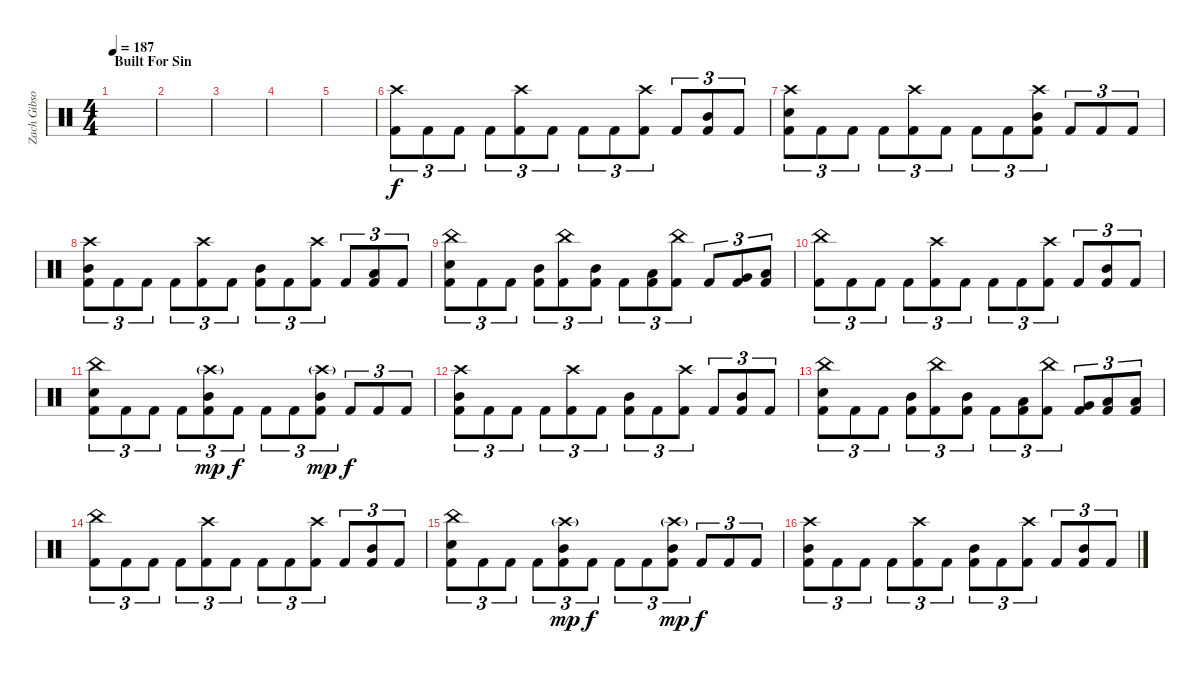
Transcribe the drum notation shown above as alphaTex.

\track ("Zach Gibson (Ex-Drums)" "Zach Gibso") {instrument percussion}
\staff {score}
\articulation defaults
\ts (4 4)
\section ("" "Built For Sin")
\tempo 187
\clef neutral
\ks c
|
|
|
|
|
("Crash high (hit)" "Kick (hit) 2").8{tu (3 2)} "Kick (hit) 2".8{tu (3 2)} "Kick (hit) 2".8{tu (3 2)} "Kick (hit) 2".8{tu (3 2)} ("Crash high (hit)" "Kick (hit) 2").8{tu (3 2)} "Kick (hit) 2".8{tu (3 2)} "Kick (hit) 2".8{tu (3 2)} "Kick (hit) 2".8{tu (3 2)} ("Crash high (hit)" "Kick (hit) 2").8{tu (3 2)} "Kick (hit) 2".8{tu (3 2)} ("Mid Tom (hit)" "Kick (hit) 2").8{tu (3 2)} "Kick (hit) 2".8{tu (3 2)} |
("Snare (hit) 2" "Crash high (hit)" "Kick (hit) 2").8{tu (3 2)} "Kick (hit) 2".8{tu (3 2)} "Kick (hit) 2".8{tu (3 2)} "Kick (hit) 2".8{tu (3 2)} ("Crash high (hit)" "Kick (hit) 2").8{tu (3 2)} "Kick (hit) 2".8{tu (3 2)} "Kick (hit) 2".8{tu (3 2)} "Kick (hit) 2".8{tu (3 2)} ("Mid Tom (hit)" "Crash high (hit)" "Kick (hit) 2").8{tu (3 2)} "Kick (hit) 2".8{tu (3 2)} "Kick (hit) 2".8{tu (3 2)} "Kick (hit) 2".8{tu (3 2)} |
("Mid Tom (hit)" "Crash high (hit)" "Kick (hit) 2").8{tu (3 2)} "Kick (hit) 2".8{tu (3 2)} "Kick (hit) 2".8{tu (3 2)} "Kick (hit) 2".8{tu (3 2)} ("Crash high (hit)" "Kick (hit) 2").8{tu (3 2)} "Kick (hit) 2".8{tu (3 2)} ("Mid Tom (hit)" "Kick (hit) 2").8{tu (3 2)} "Kick (hit) 2".8{tu (3 2)} ("Crash high (hit)" "Kick (hit) 2").8{tu (3 2)} "Kick (hit) 2".8{tu (3 2)} ("Low Tom (hit)" "Kick (hit) 2").8{tu (3 2)} "Kick (hit) 2".8{tu (3 2)} |
("Kick (hit) 2" "China (hit)" "Snare (hit) 2").8{tu (3 2)} "Kick (hit) 2".8{tu (3 2)} "Kick (hit) 2".8{tu (3 2)} ("Mid Tom (hit)" "Kick (hit) 2").8{tu (3 2)} ("China (hit)" "Kick (hit) 2").8{tu (3 2)} ("Mid Tom (hit)" "Kick (hit) 2").8{tu (3 2)} "Kick (hit) 2".8{tu (3 2)} ("Low Tom (hit)" "Kick (hit) 2").8{tu (3 2)} ("China (hit)" "Kick (hit) 2").8{tu (3 2)} "Kick (hit) 2".8{tu (3 2)} ("Very Low Tom (hit)" "Kick (hit) 2").8{tu (3 2)} ("Low Floor Tom (hit)" "Kick (hit) 2").8{tu (3 2)} |
("China (hit)" "Kick (hit) 2").8{tu (3 2)} "Kick (hit) 2".8{tu (3 2)} "Kick (hit) 2".8{tu (3 2)} "Kick (hit) 2".8{tu (3 2)} ("Crash high (hit)" "Kick (hit) 2").8{tu (3 2)} "Kick (hit) 2".8{tu (3 2)} "Kick (hit) 2".8{tu (3 2)} "Kick (hit) 2".8{tu (3 2)} ("Crash high (hit)" "Kick (hit) 2").8{tu (3 2)} "Kick (hit) 2".8{tu (3 2)} ("Mid Tom (hit)" "Kick (hit) 2").8{tu (3 2)} "Kick (hit) 2".8{tu (3 2)} |
("Snare (hit) 2" "China (hit)" "Kick (hit) 2").8{tu (3 2)} "Kick (hit) 2".8{tu (3 2)} "Kick (hit) 2".8{tu (3 2)} "Kick (hit) 2".8{tu (3 2)} ("Mid Tom (hit)" "Crash high (hit)"{g} "Kick (hit) 2").8{tu (3 2) dy mp} "Kick (hit) 2".8{tu (3 2) dy f} "Kick (hit) 2".8{tu (3 2)} "Kick (hit) 2".8{tu (3 2)} ("Mid Tom (hit)" "Crash high (hit)"{g} "Kick (hit) 2").8{tu (3 2) dy mp} "Kick (hit) 2".8{tu (3 2) dy f} "Kick (hit) 2".8{tu (3 2)} "Kick (hit) 2".8{tu (3 2)} |
("Crash high (hit)" "Mid Tom (hit)" "Kick (hit) 2").8{tu (3 2)} "Kick (hit) 2".8{tu (3 2)} "Kick (hit) 2".8{tu (3 2)} "Kick (hit) 2".8{tu (3 2)} ("Crash high (hit)" "Kick (hit) 2").8{tu (3 2)} "Kick (hit) 2".8{tu (3 2)} ("Mid Tom (hit)" "Kick (hit) 2").8{tu (3 2)} "Kick (hit) 2".8{tu (3 2)} ("Crash high (hit)" "Kick (hit) 2").8{tu (3 2)} "Kick (hit) 2".8{tu (3 2)} ("Mid Tom (hit)" "Kick (hit) 2").8{tu (3 2)} "Kick (hit) 2".8{tu (3 2)} |
("Snare (hit) 2" "China (hit)" "Kick (hit) 2").8{tu (3 2)} "Kick (hit) 2".8{tu (3 2)} "Kick (hit) 2".8{tu (3 2)} ("Mid Tom (hit)" "Kick (hit) 2").8{tu (3 2)} ("China (hit)" "Kick (hit) 2").8{tu (3 2)} ("Mid Tom (hit)" "Kick (hit) 2").8{tu (3 2)} "Kick (hit) 2".8{tu (3 2)} ("Low Tom (hit)" "Kick (hit) 2").8{tu (3 2)} ("China (hit)" "Kick (hit) 2").8{tu (3 2)} ("Very Low Tom (hit)" "Kick (hit) 2").8{tu (3 2)} ("Low Floor Tom (hit)" "Kick (hit) 2").8{tu (3 2)} ("Low Floor Tom (hit)" "Kick (hit) 2").8{tu (3 2)} |
("China (hit)" "Kick (hit) 2").8{tu (3 2)} "Kick (hit) 2".8{tu (3 2)} "Kick (hit) 2".8{tu (3 2)} "Kick (hit) 2".8{tu (3 2)} ("Crash high (hit)" "Kick (hit) 2").8{tu (3 2)} "Kick (hit) 2".8{tu (3 2)} "Kick (hit) 2".8{tu (3 2)} "Kick (hit) 2".8{tu (3 2)} ("Crash high (hit)" "Kick (hit) 2").8{tu (3 2)} "Kick (hit) 2".8{tu (3 2)} ("Mid Tom (hit)" "Kick (hit) 2").8{tu (3 2)} "Kick (hit) 2".8{tu (3 2)} |
("Snare (hit) 2" "China (hit)" "Kick (hit) 2").8{tu (3 2)} "Kick (hit) 2".8{tu (3 2)} "Kick (hit) 2".8{tu (3 2)} "Kick (hit) 2".8{tu (3 2)} ("Mid Tom (hit)" "Crash high (hit)"{g} "Kick (hit) 2").8{tu (3 2) dy mp} "Kick (hit) 2".8{tu (3 2) dy f} "Kick (hit) 2".8{tu (3 2)} "Kick (hit) 2".8{tu (3 2)} ("Mid Tom (hit)" "Crash high (hit)"{g} "Kick (hit) 2").8{tu (3 2) dy mp} "Kick (hit) 2".8{tu (3 2) dy f} "Kick (hit) 2".8{tu (3 2)} "Kick (hit) 2".8{tu (3 2)} |
("Crash high (hit)" "Mid Tom (hit)" "Kick (hit) 2").8{tu (3 2)} "Kick (hit) 2".8{tu (3 2)} "Kick (hit) 2".8{tu (3 2)} "Kick (hit) 2".8{tu (3 2)} ("Crash high (hit)" "Kick (hit) 2").8{tu (3 2)} "Kick (hit) 2".8{tu (3 2)} ("Mid Tom (hit)" "Kick (hit) 2").8{tu (3 2)} "Kick (hit) 2".8{tu (3 2)} ("Crash high (hit)" "Kick (hit) 2").8{tu (3 2)} "Kick (hit) 2".8{tu (3 2)} ("Mid Tom (hit)" "Kick (hit) 2").8{tu (3 2)} "Kick (hit) 2".8{tu (3 2)}
